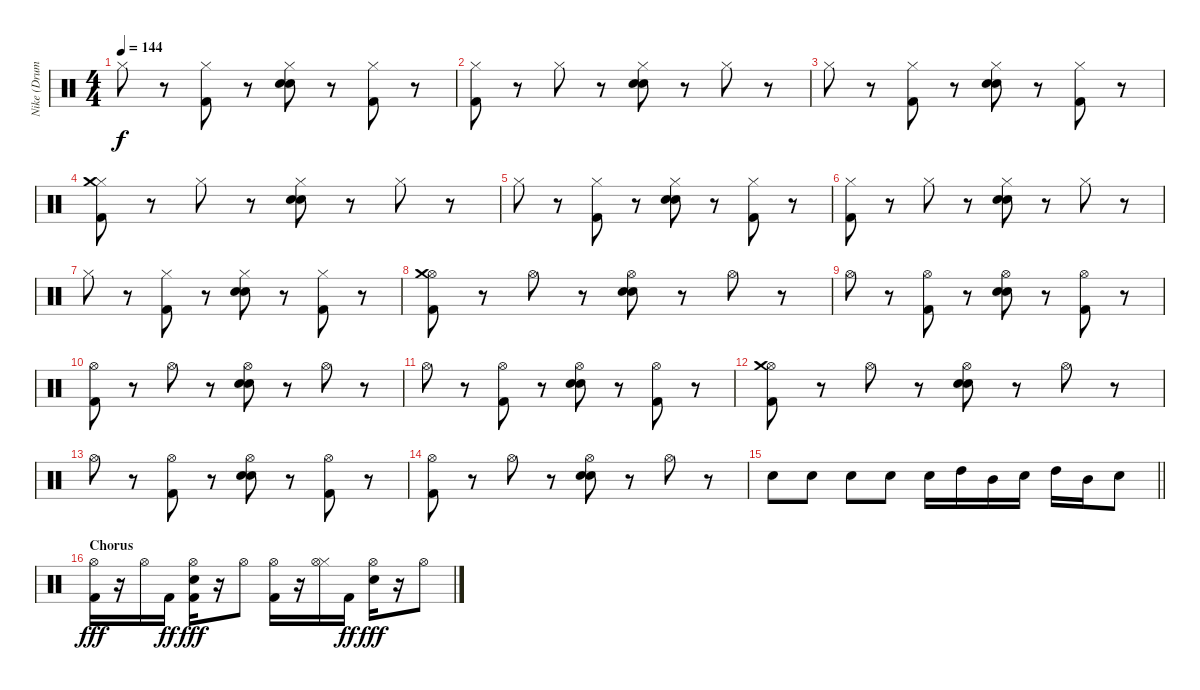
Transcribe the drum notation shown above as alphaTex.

\track ("Nike (Drums)" "Nike (Drum") {instrument percussion}
\staff {score}
\articulation defaults
\ts (4 4)
\tempo 144
\clef neutral
\ks c "Hi-Hat (closed)".8{dy f}
r.8 ("Hi-Hat (closed)" "Kick (hit) 2").8 r.8 ("Electric Snare (hit)" "Hi-Hat (closed)" "Electric Snare (hit)").8 r.8 ("Hi-Hat (closed)" "Kick (hit) 2").8 r.8 |
("Kick (hit) 2" "Hi-Hat (closed)").8 r.8 "Hi-Hat (closed)".8 r.8 ("Electric Snare (hit)" "Hi-Hat (closed)" "Electric Snare (hit)").8 r.8 "Hi-Hat (closed)".8 r.8 |
"Hi-Hat (closed)".8 r.8 ("Hi-Hat (closed)" "Kick (hit) 2").8 r.8 ("Electric Snare (hit)" "Hi-Hat (closed)" "Electric Snare (hit)").8 r.8 ("Hi-Hat (closed)" "Kick (hit) 2").8 r.8 |
("Kick (hit) 2" "Hi-Hat (closed)" "Crash medium (hit)").8 r.8 "Hi-Hat (closed)".8 r.8 ("Electric Snare (hit)" "Hi-Hat (closed)" "Electric Snare (hit)").8 r.8 "Hi-Hat (closed)".8 r.8 |
"Hi-Hat (closed)".8 r.8 ("Hi-Hat (closed)" "Kick (hit) 2").8 r.8 ("Electric Snare (hit)" "Hi-Hat (closed)" "Electric Snare (hit)").8 r.8 ("Hi-Hat (closed)" "Kick (hit) 2").8 r.8 |
("Kick (hit) 2" "Hi-Hat (closed)").8 r.8 "Hi-Hat (closed)".8 r.8 ("Electric Snare (hit)" "Hi-Hat (closed)" "Electric Snare (hit)").8 r.8 "Hi-Hat (closed)".8 r.8 |
"Hi-Hat (closed)".8 r.8 ("Hi-Hat (closed)" "Kick (hit) 2").8 r.8 ("Electric Snare (hit)" "Hi-Hat (closed)" "Electric Snare (hit)").8 r.8 ("Hi-Hat (closed)" "Kick (hit) 2").8 r.8 |
("Kick (hit) 2" "Hi-Hat (open)" "Crash medium (hit)").8 r.8 "Hi-Hat (open)".8 r.8 ("Electric Snare (hit)" "Hi-Hat (open)" "Electric Snare (hit)").8 r.8 "Hi-Hat (open)".8 r.8 |
"Hi-Hat (open)".8 r.8 ("Hi-Hat (open)" "Kick (hit) 2").8 r.8 ("Electric Snare (hit)" "Hi-Hat (open)" "Electric Snare (hit)").8 r.8 ("Hi-Hat (open)" "Kick (hit) 2").8 r.8 |
("Kick (hit) 2" "Hi-Hat (open)").8 r.8 "Hi-Hat (open)".8 r.8 ("Electric Snare (hit)" "Hi-Hat (open)" "Electric Snare (hit)").8 r.8 "Hi-Hat (open)".8 r.8 |
"Hi-Hat (open)".8 r.8 ("Hi-Hat (open)" "Kick (hit) 2").8 r.8 ("Electric Snare (hit)" "Hi-Hat (open)" "Electric Snare (hit)").8 r.8 ("Hi-Hat (open)" "Kick (hit) 2").8 r.8 |
("Kick (hit) 2" "Hi-Hat (open)" "Crash medium (hit)").8 r.8 "Hi-Hat (open)".8 r.8 ("Electric Snare (hit)" "Hi-Hat (open)" "Electric Snare (hit)").8 r.8 "Hi-Hat (open)".8 r.8 |
"Hi-Hat (open)".8 r.8 ("Hi-Hat (open)" "Kick (hit) 2").8 r.8 ("Electric Snare (hit)" "Hi-Hat (open)" "Electric Snare (hit)").8 r.8 ("Hi-Hat (open)" "Kick (hit) 2").8 r.8 |
("Kick (hit) 2" "Hi-Hat (open)").8 r.8 "Hi-Hat (open)".8 r.8 ("Electric Snare (hit)" "Hi-Hat (open)" "Electric Snare (hit)").8 r.8 "Hi-Hat (open)".8 r.8 |
\barLineRight lightlight "Electric Snare (hit)".8 "Electric Snare (hit)".8 "Electric Snare (hit)".8 "Electric Snare (hit)".8 "Electric Snare (hit)".16 "High Tom (hit)".16 "Mid Tom (hit)".16 "Electric Snare (hit)".16 "High Tom (hit)".16 "Mid Tom (hit)".16 "Electric Snare (hit)".8
|
\section ("" "Chorus")
("Kick (hit) 2" "Hi-Hat (open)").16{dy fff} r.16 "Hi-Hat (open)".16 "Kick (hit) 2".16{dy ff} ("Kick (hit) 2" "Electric Snare (hit)" "Hi-Hat (open)").16{dy fff} r.16 "Hi-Hat (open)".8 ("Kick (hit) 2" "Hi-Hat (open)").16 r.16 ("Hi-Hat (closed)" "Hi-Hat (open)").16 "Kick (hit) 2".16{dy ff} ("Electric Snare (hit)" "Hi-Hat (open)").16{dy fff} r.16 "Hi-Hat (open)".8
